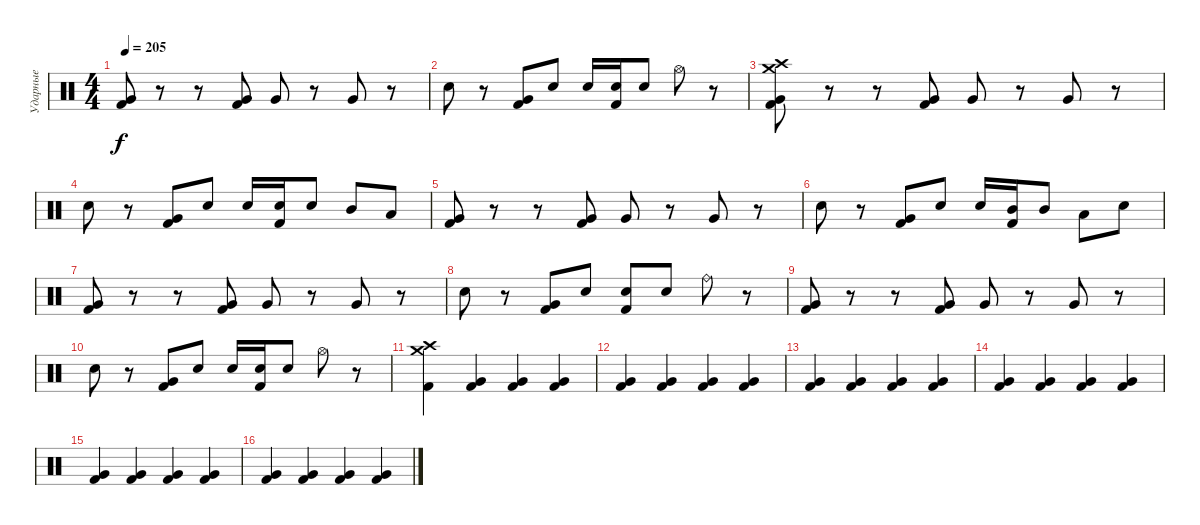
\track ("Ударные" "Ударные") {instrument percussion}
\staff {score}
\articulation defaults
\ts (4 4)
\tempo 205
\clef neutral
\ks c
("Very Low Tom (hit)" "Kick (hit) 2").8{dy f} r.8 r.8 ("Very Low Tom (hit)" "Kick (hit) 2").8 "Very Low Tom (hit)".8 r.8 "Very Low Tom (hit)".8 r.8 |
"Electric Snare (hit)".8 r.8 ("Very Low Tom (hit)" "Kick (hit) 2").8 "Electric Snare (hit)".8 "Electric Snare (hit)".16 ("Electric Snare (hit)" "Kick (hit) 2").16 "Electric Snare (hit)".8 "Hi-Hat (open)".8 r.8 |
("Crash medium (hit)" "Crash high (hit)" "Very Low Tom (hit)" "Kick (hit) 2").8 r.8 r.8 ("Very Low Tom (hit)" "Kick (hit) 2").8 "Very Low Tom (hit)".8 r.8 "Very Low Tom (hit)".8 r.8 |
"Electric Snare (hit)".8 r.8 ("Very Low Tom (hit)" "Kick (hit) 2").8 "Electric Snare (hit)".8 "Electric Snare (hit)".16 ("Electric Snare (hit)" "Kick (hit) 2").16 "Electric Snare (hit)".8 "Mid Tom (hit)".8 "Low Tom (hit)".8 |
("Very Low Tom (hit)" "Kick (hit) 2").8 r.8 r.8 ("Very Low Tom (hit)" "Kick (hit) 2").8 "Very Low Tom (hit)".8 r.8 "Very Low Tom (hit)".8 r.8 |
"Electric Snare (hit)".8 r.8 ("Very Low Tom (hit)" "Kick (hit) 2").8 "Electric Snare (hit)".8 "Electric Snare (hit)".16 ("Mid Tom (hit)" "Kick (hit) 2").16 "Mid Tom (hit)".8 "Low Tom (hit)".8 "Electric Snare (hit)".8 |
("Very Low Tom (hit)" "Kick (hit) 2").8 r.8 r.8 ("Very Low Tom (hit)" "Kick (hit) 2").8 "Very Low Tom (hit)".8 r.8 "Very Low Tom (hit)".8 r.8 |
"Electric Snare (hit)".8 r.8 ("Very Low Tom (hit)" "Kick (hit) 2").8 "Electric Snare (hit)".8 ("Electric Snare (hit)" "Kick (hit) 2").8 "Electric Snare (hit)".8 "Ride (bell)".8 r.8 |
("Very Low Tom (hit)" "Kick (hit) 2").8 r.8 r.8 ("Very Low Tom (hit)" "Kick (hit) 2").8 "Very Low Tom (hit)".8 r.8 "Very Low Tom (hit)".8 r.8 |
"Electric Snare (hit)".8 r.8 ("Very Low Tom (hit)" "Kick (hit) 2").8 "Electric Snare (hit)".8 "Electric Snare (hit)".16 ("Electric Snare (hit)" "Kick (hit) 2").16 "Electric Snare (hit)".8 "Hi-Hat (open)".8 r.8 |
("Crash medium (hit)" "Crash high (hit)" "Kick (hit) 2").4 ("Very Low Tom (hit)" "Kick (hit) 2").4 ("Very Low Tom (hit)" "Kick (hit) 2").4 ("Very Low Tom (hit)" "Kick (hit) 2").4 |
("Very Low Tom (hit)" "Kick (hit) 2").4 ("Very Low Tom (hit)" "Kick (hit) 2").4 ("Very Low Tom (hit)" "Kick (hit) 2").4 ("Very Low Tom (hit)" "Kick (hit) 2").4 |
("Very Low Tom (hit)" "Kick (hit) 2").4 ("Very Low Tom (hit)" "Kick (hit) 2").4 ("Very Low Tom (hit)" "Kick (hit) 2").4 ("Very Low Tom (hit)" "Kick (hit) 2").4 |
("Very Low Tom (hit)" "Kick (hit) 2").4 ("Very Low Tom (hit)" "Kick (hit) 2").4 ("Very Low Tom (hit)" "Kick (hit) 2").4 ("Very Low Tom (hit)" "Kick (hit) 2").4 |
("Very Low Tom (hit)" "Kick (hit) 2").4{volume 8} ("Very Low Tom (hit)" "Kick (hit) 2").4 ("Very Low Tom (hit)" "Kick (hit) 2").4 ("Very Low Tom (hit)" "Kick (hit) 2").4 |
("Very Low Tom (hit)" "Kick (hit) 2").4 ("Very Low Tom (hit)" "Kick (hit) 2").4 ("Very Low Tom (hit)" "Kick (hit) 2").4 ("Very Low Tom (hit)" "Kick (hit) 2").4
